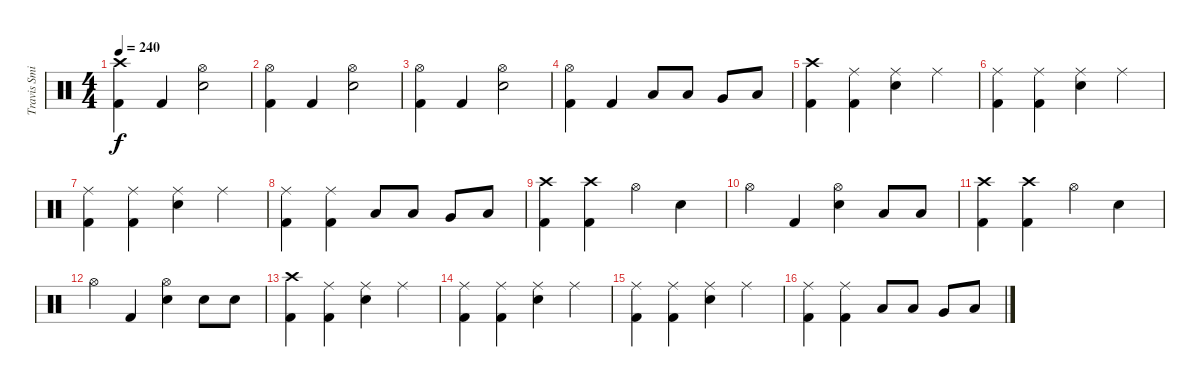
\track ("Travis Smith" "Travis Smi") {instrument percussion}
\staff {score}
\articulation defaults
\ts (4 4)
\tempo 240
\clef neutral
\ks c
("Kick (hit) 2" "Crash high (hit)").4{dy f} "Kick (hit) 2".4 ("Snare (hit) 2" "Hi-Hat (open)").2 |
("Kick (hit) 2" "Hi-Hat (open)").4 "Kick (hit) 2".4 ("Snare (hit) 2" "Hi-Hat (open)").2 |
("Kick (hit) 2" "Hi-Hat (open)").4 "Kick (hit) 2".4 ("Snare (hit) 2" "Hi-Hat (open)").2 |
("Kick (hit) 2" "Hi-Hat (open)").4 "Kick (hit) 2".4 "Low Tom (hit)".8 "Low Tom (hit)".8 "Very Low Tom (hit)".8 "Low Floor Tom (hit)".8 |
("Kick (hit) 2" "Crash high (hit)").4 ("Kick (hit) 2" "Ride (middle)").4 ("Snare (hit) 2" "Ride (middle)").4 "Ride (middle)".4 |
("Kick (hit) 2" "Ride (middle)").4 ("Kick (hit) 2" "Ride (middle)").4 ("Snare (hit) 2" "Ride (middle)").4 "Ride (middle)".4 |
("Kick (hit) 2" "Ride (middle)").4 ("Kick (hit) 2" "Ride (middle)").4 ("Snare (hit) 2" "Ride (middle)").4 "Ride (middle)".4 |
("Kick (hit) 2" "Ride (middle)").4 ("Kick (hit) 2" "Ride (middle)").4 "Low Tom (hit)".8 "Low Tom (hit)".8 "Very Low Tom (hit)".8 "Low Floor Tom (hit)".8 |
("Kick (hit) 2" "Crash high (hit)").4 ("Kick (hit) 2" "Crash high (hit)").4 "Hi-Hat (open)".4 "Snare (hit) 2".4 |
"Hi-Hat (open)".4 "Kick (hit) 2".4 ("Snare (hit) 2" "Hi-Hat (open)").4 "Low Tom (hit)".8 "Low Tom (hit)".8 |
("Kick (hit) 2" "Crash high (hit)").4 ("Kick (hit) 2" "Crash high (hit)").4 "Hi-Hat (open)".4 "Snare (hit) 2".4 |
"Hi-Hat (open)".4 "Kick (hit) 2".4 ("Snare (hit) 2" "Hi-Hat (open)").4 "Snare (hit) 2".8 "Snare (hit) 2".8 |
("Kick (hit) 2" "Crash high (hit)").4 ("Kick (hit) 2" "Ride (middle)").4 ("Snare (hit) 2" "Ride (middle)").4 "Ride (middle)".4 |
("Kick (hit) 2" "Ride (middle)").4 ("Kick (hit) 2" "Ride (middle)").4 ("Snare (hit) 2" "Ride (middle)").4 "Ride (middle)".4 |
("Kick (hit) 2" "Ride (middle)").4 ("Kick (hit) 2" "Ride (middle)").4 ("Snare (hit) 2" "Ride (middle)").4 "Ride (middle)".4 |
("Kick (hit) 2" "Ride (middle)").4 ("Kick (hit) 2" "Ride (middle)").4 "Low Tom (hit)".8 "Low Tom (hit)".8 "Very Low Tom (hit)".8 "Low Floor Tom (hit)".8
